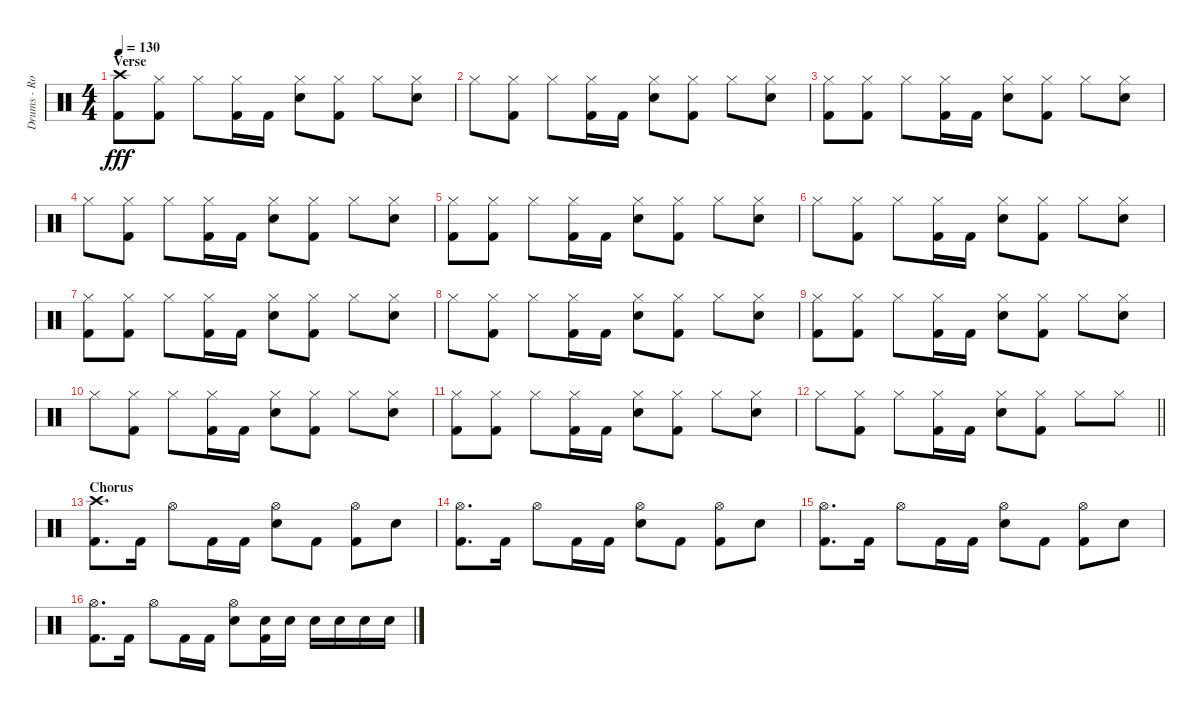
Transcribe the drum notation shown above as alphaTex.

\track ("Drums - Rob Bourdon" "Drums - Ro") {instrument percussion}
\staff {score}
\articulation defaults
\ts (4 4)
\section ("" "Verse")
\tempo 130
\clef neutral
\ks c
("Crash high (hit)" "Kick (hit) 2").8{dy fff} ("Hi-Hat (closed)" "Kick (hit) 2").8 "Hi-Hat (closed)".8 ("Hi-Hat (closed)" "Kick (hit) 2").16 "Kick (hit) 2".16 ("Hi-Hat (closed)" "Snare (hit) 2").8 ("Hi-Hat (closed)" "Kick (hit) 2").8 "Hi-Hat (closed)".8 ("Hi-Hat (closed)" "Snare (hit) 2").8 |
"Hi-Hat (closed)".8 ("Hi-Hat (closed)" "Kick (hit) 2").8 "Hi-Hat (closed)".8 ("Hi-Hat (closed)" "Kick (hit) 2").16 "Kick (hit) 2".16 ("Hi-Hat (closed)" "Snare (hit) 2").8 ("Hi-Hat (closed)" "Kick (hit) 2").8 "Hi-Hat (closed)".8 ("Hi-Hat (closed)" "Snare (hit) 2").8 |
("Hi-Hat (closed)" "Kick (hit) 2").8 ("Hi-Hat (closed)" "Kick (hit) 2").8 "Hi-Hat (closed)".8 ("Hi-Hat (closed)" "Kick (hit) 2").16 "Kick (hit) 2".16 ("Hi-Hat (closed)" "Snare (hit) 2").8 ("Hi-Hat (closed)" "Kick (hit) 2").8 "Hi-Hat (closed)".8 ("Hi-Hat (closed)" "Snare (hit) 2").8 |
"Hi-Hat (closed)".8 ("Hi-Hat (closed)" "Kick (hit) 2").8 "Hi-Hat (closed)".8 ("Hi-Hat (closed)" "Kick (hit) 2").16 "Kick (hit) 2".16 ("Hi-Hat (closed)" "Snare (hit) 2").8 ("Hi-Hat (closed)" "Kick (hit) 2").8 "Hi-Hat (closed)".8 ("Hi-Hat (closed)" "Snare (hit) 2").8 |
("Hi-Hat (closed)" "Kick (hit) 2").8 ("Hi-Hat (closed)" "Kick (hit) 2").8 "Hi-Hat (closed)".8 ("Hi-Hat (closed)" "Kick (hit) 2").16 "Kick (hit) 2".16 ("Hi-Hat (closed)" "Snare (hit) 2").8 ("Hi-Hat (closed)" "Kick (hit) 2").8 "Hi-Hat (closed)".8 ("Hi-Hat (closed)" "Snare (hit) 2").8 |
"Hi-Hat (closed)".8 ("Hi-Hat (closed)" "Kick (hit) 2").8 "Hi-Hat (closed)".8 ("Hi-Hat (closed)" "Kick (hit) 2").16 "Kick (hit) 2".16 ("Hi-Hat (closed)" "Snare (hit) 2").8 ("Hi-Hat (closed)" "Kick (hit) 2").8 "Hi-Hat (closed)".8 ("Hi-Hat (closed)" "Snare (hit) 2").8 |
("Hi-Hat (closed)" "Kick (hit) 2").8 ("Hi-Hat (closed)" "Kick (hit) 2").8 "Hi-Hat (closed)".8 ("Hi-Hat (closed)" "Kick (hit) 2").16 "Kick (hit) 2".16 ("Hi-Hat (closed)" "Snare (hit) 2").8 ("Hi-Hat (closed)" "Kick (hit) 2").8 "Hi-Hat (closed)".8 ("Hi-Hat (closed)" "Snare (hit) 2").8 |
"Hi-Hat (closed)".8 ("Hi-Hat (closed)" "Kick (hit) 2").8 "Hi-Hat (closed)".8 ("Hi-Hat (closed)" "Kick (hit) 2").16 "Kick (hit) 2".16 ("Hi-Hat (closed)" "Snare (hit) 2").8 ("Hi-Hat (closed)" "Kick (hit) 2").8 "Hi-Hat (closed)".8 ("Hi-Hat (closed)" "Snare (hit) 2").8 |
("Hi-Hat (closed)" "Kick (hit) 2").8 ("Hi-Hat (closed)" "Kick (hit) 2").8 "Hi-Hat (closed)".8 ("Hi-Hat (closed)" "Kick (hit) 2").16 "Kick (hit) 2".16 ("Hi-Hat (closed)" "Snare (hit) 2").8 ("Hi-Hat (closed)" "Kick (hit) 2").8 "Hi-Hat (closed)".8 ("Hi-Hat (closed)" "Snare (hit) 2").8 |
"Hi-Hat (closed)".8 ("Hi-Hat (closed)" "Kick (hit) 2").8 "Hi-Hat (closed)".8 ("Hi-Hat (closed)" "Kick (hit) 2").16 "Kick (hit) 2".16 ("Hi-Hat (closed)" "Snare (hit) 2").8 ("Hi-Hat (closed)" "Kick (hit) 2").8 "Hi-Hat (closed)".8 ("Hi-Hat (closed)" "Snare (hit) 2").8 |
("Hi-Hat (closed)" "Kick (hit) 2").8 ("Hi-Hat (closed)" "Kick (hit) 2").8 "Hi-Hat (closed)".8 ("Hi-Hat (closed)" "Kick (hit) 2").16 "Kick (hit) 2".16 ("Hi-Hat (closed)" "Snare (hit) 2").8 ("Hi-Hat (closed)" "Kick (hit) 2").8 "Hi-Hat (closed)".8 ("Hi-Hat (closed)" "Snare (hit) 2").8 |
\barLineRight lightlight "Hi-Hat (closed)".8
("Hi-Hat (closed)" "Kick (hit) 2").8 "Hi-Hat (closed)".8 ("Hi-Hat (closed)" "Kick (hit) 2").16 "Kick (hit) 2".16 ("Hi-Hat (closed)" "Snare (hit) 2").8 ("Hi-Hat (closed)" "Kick (hit) 2").8 "Hi-Hat (closed)".8 "Hi-Hat (closed)".8 |
\section ("" "Chorus")
("Crash high (hit)" "Kick (hit) 2").8{d} "Kick (hit) 2".16 "Hi-Hat (open)".8 "Kick (hit) 2".16 "Kick (hit) 2".16 ("Hi-Hat (open)" "Snare (hit) 2").8 "Kick (hit) 2".8 ("Hi-Hat (open)" "Kick (hit) 2").8 "Snare (hit) 2".8 |
("Hi-Hat (open)" "Kick (hit) 2").8{d} "Kick (hit) 2".16 "Hi-Hat (open)".8 "Kick (hit) 2".16 "Kick (hit) 2".16 ("Hi-Hat (open)" "Snare (hit) 2").8 "Kick (hit) 2".8 ("Hi-Hat (open)" "Kick (hit) 2").8 "Snare (hit) 2".8 |
("Hi-Hat (open)" "Kick (hit) 2").8{d} "Kick (hit) 2".16 "Hi-Hat (open)".8 "Kick (hit) 2".16 "Kick (hit) 2".16 ("Hi-Hat (open)" "Snare (hit) 2").8 "Kick (hit) 2".8 ("Hi-Hat (open)" "Kick (hit) 2").8 "Snare (hit) 2".8 |
("Hi-Hat (open)" "Kick (hit) 2").8{d} "Kick (hit) 2".16 "Hi-Hat (open)".8 "Kick (hit) 2".16 "Kick (hit) 2".16 ("Hi-Hat (open)" "Snare (hit) 2").8 ("Snare (hit) 2" "Kick (hit) 2").16 "Snare (hit) 2".16 "Snare (hit) 2".16 "Snare (hit) 2".16 "Snare (hit) 2".16 "Snare (hit) 2".16
